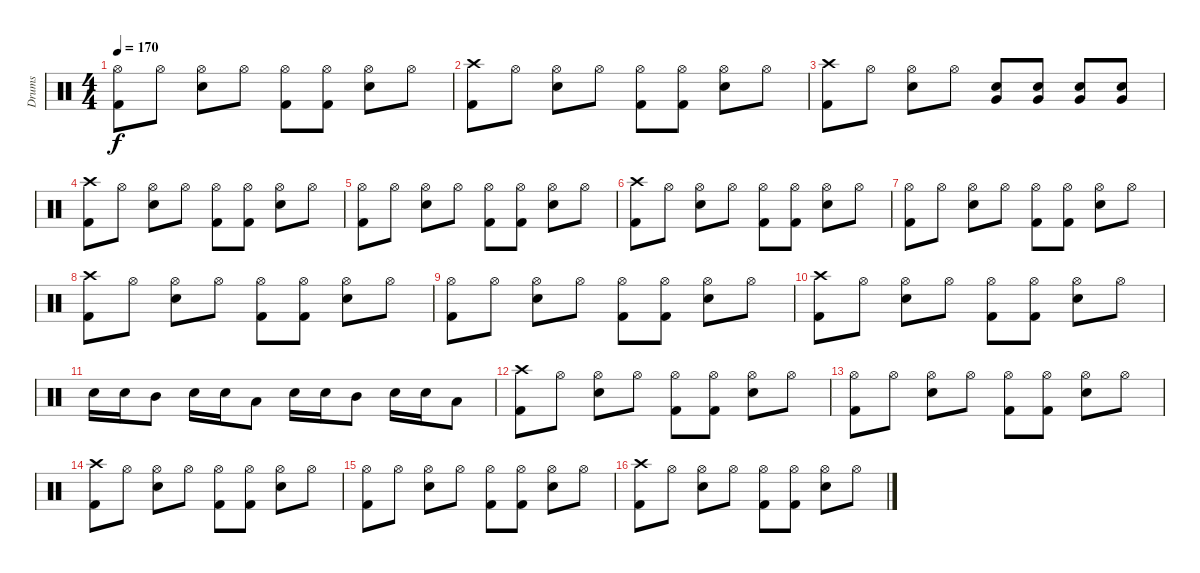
\track ("Drums" "Drums") {instrument percussion}
\staff {score}
\articulation defaults
\ts (4 4)
\tempo 170
\clef neutral
\ks c
("Hi-Hat (open)" "Kick (hit) 2").8{dy f} "Hi-Hat (open)".8 ("Hi-Hat (open)" "Snare (hit) 2").8 "Hi-Hat (open)".8 ("Hi-Hat (open)" "Kick (hit) 2").8 ("Hi-Hat (open)" "Kick (hit) 2").8 ("Hi-Hat (open)" "Snare (hit) 2").8 "Hi-Hat (open)".8 |
("Crash high (hit)" "Kick (hit) 2").8 "Hi-Hat (open)".8 ("Hi-Hat (open)" "Snare (hit) 2").8 "Hi-Hat (open)".8 ("Hi-Hat (open)" "Kick (hit) 2").8 ("Hi-Hat (open)" "Kick (hit) 2").8 ("Hi-Hat (open)" "Snare (hit) 2").8 "Hi-Hat (open)".8 |
("Crash high (hit)" "Kick (hit) 2").8 "Hi-Hat (open)".8 ("Hi-Hat (open)" "Snare (hit) 2").8 "Hi-Hat (open)".8 ("Snare (hit) 2" "Very Low Tom (hit)").8 ("Snare (hit) 2" "Very Low Tom (hit)").8 ("Snare (hit) 2" "Very Low Tom (hit)").8 ("Snare (hit) 2" "Very Low Tom (hit)").8 |
("Crash high (hit)" "Kick (hit) 2").8 "Hi-Hat (open)".8 ("Hi-Hat (open)" "Snare (hit) 2").8 "Hi-Hat (open)".8 ("Hi-Hat (open)" "Kick (hit) 2").8 ("Hi-Hat (open)" "Kick (hit) 2").8 ("Hi-Hat (open)" "Snare (hit) 2").8 "Hi-Hat (open)".8 |
("Hi-Hat (open)" "Kick (hit) 2").8 "Hi-Hat (open)".8 ("Hi-Hat (open)" "Snare (hit) 2").8 "Hi-Hat (open)".8 ("Hi-Hat (open)" "Kick (hit) 2").8 ("Hi-Hat (open)" "Kick (hit) 2").8 ("Hi-Hat (open)" "Snare (hit) 2").8 "Hi-Hat (open)".8 |
("Crash high (hit)" "Kick (hit) 2").8 "Hi-Hat (open)".8 ("Hi-Hat (open)" "Snare (hit) 2").8 "Hi-Hat (open)".8 ("Hi-Hat (open)" "Kick (hit) 2").8 ("Hi-Hat (open)" "Kick (hit) 2").8 ("Hi-Hat (open)" "Snare (hit) 2").8 "Hi-Hat (open)".8 |
("Hi-Hat (open)" "Kick (hit) 2").8 "Hi-Hat (open)".8 ("Hi-Hat (open)" "Snare (hit) 2").8 "Hi-Hat (open)".8 ("Hi-Hat (open)" "Kick (hit) 2").8 ("Hi-Hat (open)" "Kick (hit) 2").8 ("Hi-Hat (open)" "Snare (hit) 2").8 "Hi-Hat (open)".8 |
("Crash high (hit)" "Kick (hit) 2").8 "Hi-Hat (open)".8 ("Hi-Hat (open)" "Snare (hit) 2").8 "Hi-Hat (open)".8 ("Hi-Hat (open)" "Kick (hit) 2").8 ("Hi-Hat (open)" "Kick (hit) 2").8 ("Hi-Hat (open)" "Snare (hit) 2").8 "Hi-Hat (open)".8 |
("Hi-Hat (open)" "Kick (hit) 2").8 "Hi-Hat (open)".8 ("Hi-Hat (open)" "Snare (hit) 2").8 "Hi-Hat (open)".8 ("Hi-Hat (open)" "Kick (hit) 2").8 ("Hi-Hat (open)" "Kick (hit) 2").8 ("Hi-Hat (open)" "Snare (hit) 2").8 "Hi-Hat (open)".8 |
("Crash high (hit)" "Kick (hit) 2").8 "Hi-Hat (open)".8 ("Hi-Hat (open)" "Snare (hit) 2").8 "Hi-Hat (open)".8 ("Hi-Hat (open)" "Kick (hit) 2").8 ("Hi-Hat (open)" "Kick (hit) 2").8 ("Hi-Hat (open)" "Snare (hit) 2").8 "Hi-Hat (open)".8 |
"Snare (hit) 2".16 "Snare (hit) 2".16 "Mid Tom (hit)".8 "Snare (hit) 2".16 "Snare (hit) 2".16 "Low Tom (hit)".8 "Snare (hit) 2".16 "Snare (hit) 2".16 "Mid Tom (hit)".8 "Snare (hit) 2".16 "Snare (hit) 2".16 "Low Tom (hit)".8 |
("Crash high (hit)" "Kick (hit) 2").8 "Hi-Hat (open)".8 ("Hi-Hat (open)" "Snare (hit) 2").8 "Hi-Hat (open)".8 ("Hi-Hat (open)" "Kick (hit) 2").8 ("Hi-Hat (open)" "Kick (hit) 2").8 ("Hi-Hat (open)" "Snare (hit) 2").8 "Hi-Hat (open)".8 |
("Hi-Hat (open)" "Kick (hit) 2").8 "Hi-Hat (open)".8 ("Hi-Hat (open)" "Snare (hit) 2").8 "Hi-Hat (open)".8 ("Hi-Hat (open)" "Kick (hit) 2").8 ("Hi-Hat (open)" "Kick (hit) 2").8 ("Hi-Hat (open)" "Snare (hit) 2").8 "Hi-Hat (open)".8 |
("Crash high (hit)" "Kick (hit) 2").8 "Hi-Hat (open)".8 ("Hi-Hat (open)" "Snare (hit) 2").8 "Hi-Hat (open)".8 ("Hi-Hat (open)" "Kick (hit) 2").8 ("Hi-Hat (open)" "Kick (hit) 2").8 ("Hi-Hat (open)" "Snare (hit) 2").8 "Hi-Hat (open)".8 |
("Hi-Hat (open)" "Kick (hit) 2").8 "Hi-Hat (open)".8 ("Hi-Hat (open)" "Snare (hit) 2").8 "Hi-Hat (open)".8 ("Hi-Hat (open)" "Kick (hit) 2").8 ("Hi-Hat (open)" "Kick (hit) 2").8 ("Hi-Hat (open)" "Snare (hit) 2").8 "Hi-Hat (open)".8 |
("Crash high (hit)" "Kick (hit) 2").8 "Hi-Hat (open)".8 ("Hi-Hat (open)" "Snare (hit) 2").8 "Hi-Hat (open)".8 ("Hi-Hat (open)" "Kick (hit) 2").8 ("Hi-Hat (open)" "Kick (hit) 2").8 ("Hi-Hat (open)" "Snare (hit) 2").8 "Hi-Hat (open)".8
